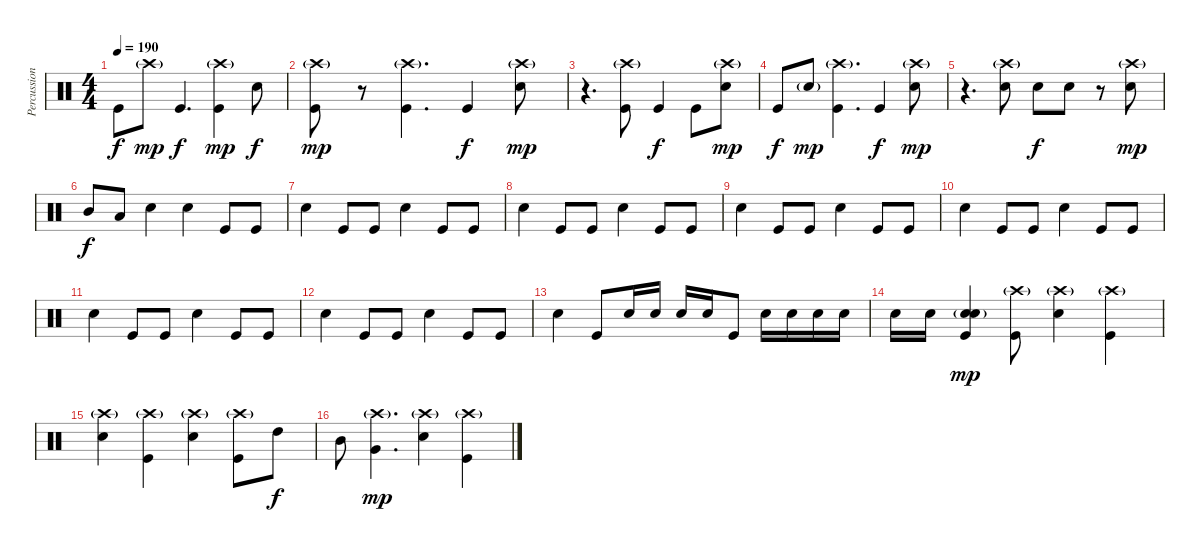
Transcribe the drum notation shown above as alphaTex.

\track ("Percussion" "Percussion") {instrument percussion}
\staff {score}
\articulation defaults
\ts (4 4)
\tempo 190
\clef neutral
\ks c "Kick (hit)".8{dy f} "Crash high (hit)"{g}.8{dy mp} "Kick (hit)".4{d dy f}
("Kick (hit)" "Crash high (hit)"{g}).4{dy mp} "Electric Snare (hit)".8{dy f} |
("Kick (hit)" "Crash high (hit)"{g}).8{dy mp} r.8 ("Kick (hit)" "Crash high (hit)"{g}).4{d} "Kick (hit)".4{dy f} ("Electric Snare (hit)" "Crash high (hit)"{g}).8{dy mp} |
r.4{d} ("Kick (hit)" "Crash high (hit)"{g}).8 "Kick (hit)".4{dy f} "Kick (hit)".8 ("Electric Snare (hit)" "Crash high (hit)"{g}).8{dy mp} |
"Kick (hit)".8{dy f} "Electric Snare (hit)"{g}.8{dy mp} ("Kick (hit)" "Crash high (hit)"{g}).4{d} "Kick (hit)".4{dy f} ("Electric Snare (hit)" "Crash high (hit)"{g}).8{dy mp} |
r.4{d} ("Electric Snare (hit)" "Crash high (hit)"{g}).8 "Electric Snare (hit)".8{dy f} "Electric Snare (hit)".8 r.8 ("Electric Snare (hit)" "Crash high (hit)"{g}).8{dy mp} |
"Mid Tom (hit)".8{dy f} "Low Tom (hit)".8 "Electric Snare (hit)".4 "Snare (hit) 2".4 "Kick (hit)".8 "Kick (hit)".8 |
"Snare (hit) 2".4 "Kick (hit)".8 "Kick (hit)".8 "Snare (hit) 2".4 "Kick (hit)".8 "Kick (hit)".8 |
"Snare (hit) 2".4 "Kick (hit)".8 "Kick (hit)".8 "Snare (hit) 2".4 "Kick (hit)".8 "Kick (hit)".8 |
"Snare (hit) 2".4 "Kick (hit)".8 "Kick (hit)".8 "Snare (hit) 2".4 "Kick (hit)".8 "Kick (hit)".8 |
"Snare (hit) 2".4 "Kick (hit)".8 "Kick (hit)".8 "Snare (hit) 2".4 "Kick (hit)".8 "Kick (hit)".8 |
"Snare (hit) 2".4 "Kick (hit)".8 "Kick (hit)".8 "Snare (hit) 2".4 "Kick (hit)".8 "Kick (hit)".8 |
"Snare (hit) 2".4 "Kick (hit)".8 "Kick (hit)".8 "Snare (hit) 2".4 "Kick (hit)".8 "Kick (hit)".8 |
"Snare (hit) 2".4 "Kick (hit)".8 "Electric Snare (hit)".16 "Electric Snare (hit)".16 "Electric Snare (hit)".16 "Electric Snare (hit)".16 "Kick (hit)".8 "Electric Snare (hit)".16 "Electric Snare (hit)".16 "Electric Snare (hit)".16 "Electric Snare (hit)".16 |
"Electric Snare (hit)".16 "Electric Snare (hit)".16 ("Electric Snare (hit)"{g} "Kick (hit)" "Electric Snare (hit)").4{dy mp} ("Kick (hit)" "Crash high (hit)"{g}).8 ("Electric Snare (hit)" "Crash high (hit)"{g}).4 ("Kick (hit)" "Crash high (hit)"{g}).4 |
("Electric Snare (hit)" "Crash high (hit)"{g}).4 ("Kick (hit)" "Crash high (hit)"{g}).4 ("Electric Snare (hit)" "Crash high (hit)"{g}).4 ("Kick (hit)" "Crash high (hit)"{g}).8 "High Tom (hit)".8{dy f} |
"Mid Tom (hit)".8 ("Very Low Tom (hit)" "Crash high (hit)"{g}).4{d dy mp} ("Electric Snare (hit)" "Crash high (hit)"{g}).4 ("Kick (hit)" "Crash high (hit)"{g}).4
